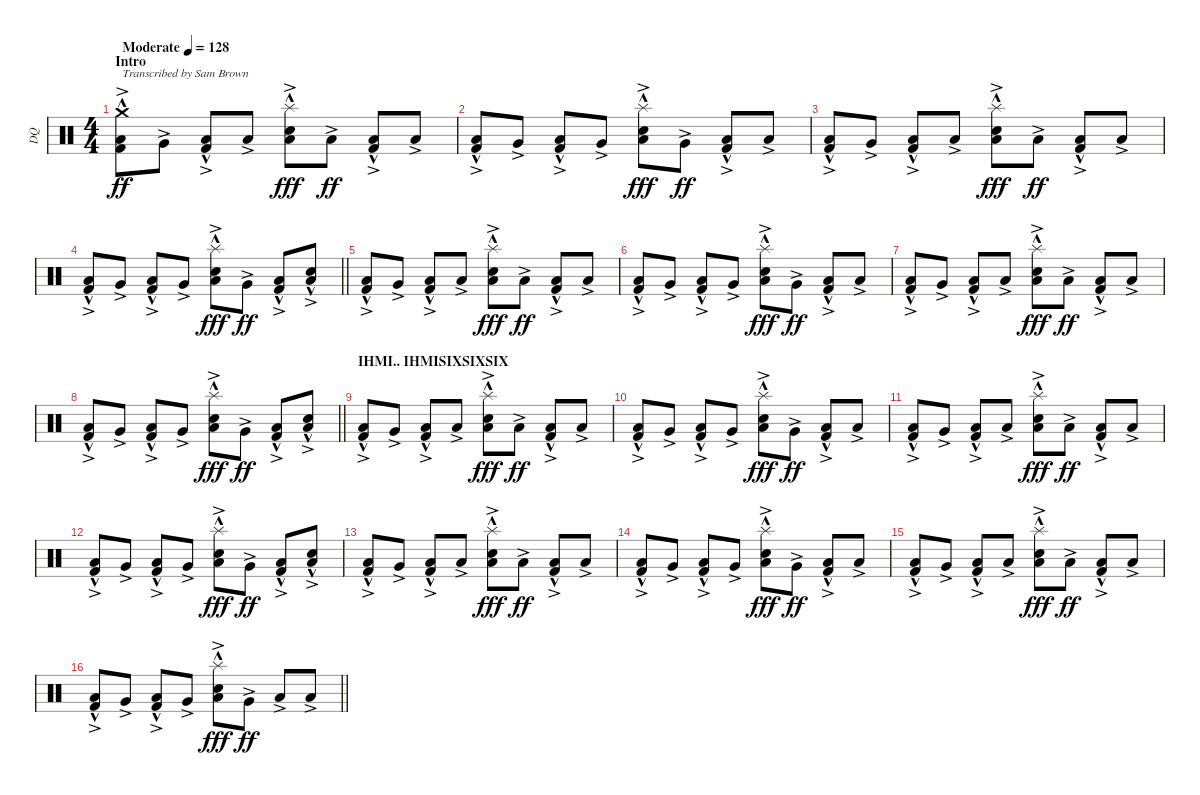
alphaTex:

\track ("DQ" "DQ") {instrument percussion}
\staff {score}
\articulation defaults
\ts (4 4)
\section ("" "Intro")
\tempo (128 "Moderate")
\clef neutral
\ks c
("Kick (hit) 2"{hac} "Low Tom (hit)"{ac} "Crash medium (hit)").8{txt "Transcribed by Sam Brown" dy ff} "Very Low Tom (hit)"{ac}.8 ("Kick (hit) 2"{hac} "Low Floor Tom (hit)"{ac}).8 "Low Floor Tom (hit)"{ac}.8 ("Snare (hit) 2"{hac} "Low Floor Tom (hit)"{ac} "Splash (hit)"{hac}).8{dy fff} "Low Tom (hit)"{ac}.8{dy ff} ("Kick (hit) 2"{hac} "Low Floor Tom (hit)"{ac}).8 "Low Floor Tom (hit)"{ac}.8 |
("Kick (hit) 2"{hac} "Low Floor Tom (hit)"{ac}).8 "Very Low Tom (hit)"{ac}.8 ("Kick (hit) 2"{hac} "Low Floor Tom (hit)"{ac}).8 "Very Low Tom (hit)"{ac}.8 ("Snare (hit) 2"{hac} "Low Tom (hit)"{ac} "Splash (hit)"{hac}).8{dy fff} "Very Low Tom (hit)"{ac}.8{dy ff} ("Kick (hit) 2"{hac} "Low Floor Tom (hit)"{ac}).8 "Low Floor Tom (hit)"{ac}.8 |
("Kick (hit) 2"{hac} "Low Tom (hit)"{ac}).8 "Very Low Tom (hit)"{ac}.8 ("Kick (hit) 2"{hac} "Low Floor Tom (hit)"{ac}).8 "Low Floor Tom (hit)"{ac}.8 ("Snare (hit) 2"{hac} "Low Floor Tom (hit)"{ac} "Splash (hit)"{hac}).8{dy fff} "Low Tom (hit)"{ac}.8{dy ff} ("Kick (hit) 2"{hac} "Low Floor Tom (hit)"{ac}).8 "Low Floor Tom (hit)"{ac}.8 |
\barLineRight lightlight
("Kick (hit) 2"{hac} "Low Floor Tom (hit)"{ac}).8 "Very Low Tom (hit)"{ac}.8 ("Kick (hit) 2"{hac} "Low Floor Tom (hit)"{ac}).8 "Very Low Tom (hit)"{ac}.8 ("Snare (hit) 2"{hac} "Low Tom (hit)"{ac} "Splash (hit)"{hac}).8{dy fff} "Very Low Tom (hit)"{ac}.8{dy ff} ("Kick (hit) 2"{hac} "Low Floor Tom (hit)"{ac}).8 ("Snare (hit) 2"{hac} "Low Floor Tom (hit)"{ac}).8 |
\section ("" "")
("Kick (hit) 2"{hac} "Low Tom (hit)"{ac}).8 "Very Low Tom (hit)"{ac}.8 ("Kick (hit) 2"{hac} "Low Floor Tom (hit)"{ac}).8 "Low Floor Tom (hit)"{ac}.8 ("Snare (hit) 2"{hac} "Low Floor Tom (hit)"{ac} "Splash (hit)"{hac}).8{dy fff} "Low Tom (hit)"{ac}.8{dy ff} ("Kick (hit) 2"{hac} "Low Floor Tom (hit)"{ac}).8 "Low Floor Tom (hit)"{ac}.8 |
("Kick (hit) 2"{hac} "Low Floor Tom (hit)"{ac}).8 "Very Low Tom (hit)"{ac}.8 ("Kick (hit) 2"{hac} "Low Floor Tom (hit)"{ac}).8 "Very Low Tom (hit)"{ac}.8 ("Snare (hit) 2"{hac} "Low Tom (hit)"{ac} "Splash (hit)"{hac}).8{dy fff} "Very Low Tom (hit)"{ac}.8{dy ff} ("Kick (hit) 2"{hac} "Low Floor Tom (hit)"{ac}).8 "Low Floor Tom (hit)"{ac}.8 |
("Kick (hit) 2"{hac} "Low Tom (hit)"{ac}).8 "Very Low Tom (hit)"{ac}.8 ("Kick (hit) 2"{hac} "Low Floor Tom (hit)"{ac}).8 "Low Floor Tom (hit)"{ac}.8 ("Snare (hit) 2"{hac} "Low Floor Tom (hit)"{ac} "Splash (hit)"{hac}).8{dy fff} "Low Tom (hit)"{ac}.8{dy ff} ("Kick (hit) 2"{hac} "Low Floor Tom (hit)"{ac}).8 "Low Floor Tom (hit)"{ac}.8 |
\barLineRight lightlight
("Kick (hit) 2"{hac} "Low Floor Tom (hit)"{ac}).8 "Very Low Tom (hit)"{ac}.8 ("Kick (hit) 2"{hac} "Low Floor Tom (hit)"{ac}).8 "Very Low Tom (hit)"{ac}.8 ("Snare (hit) 2"{hac} "Low Tom (hit)"{ac} "Splash (hit)"{hac}).8{dy fff} "Very Low Tom (hit)"{ac}.8{dy ff} ("Kick (hit) 2"{hac} "Low Floor Tom (hit)"{ac}).8 ("Snare (hit) 2"{hac} "Low Floor Tom (hit)"{ac}).8 |
\section ("" "IHMI.. IHMISIXSIXSIX")
("Kick (hit) 2"{hac} "Low Tom (hit)"{ac}).8 "Very Low Tom (hit)"{ac}.8 ("Kick (hit) 2"{hac} "Low Floor Tom (hit)"{ac}).8 "Low Floor Tom (hit)"{ac}.8 ("Snare (hit) 2"{hac} "Low Floor Tom (hit)"{ac} "Splash (hit)"{hac}).8{dy fff} "Low Tom (hit)"{ac}.8{dy ff} ("Kick (hit) 2"{hac} "Low Floor Tom (hit)"{ac}).8 "Low Floor Tom (hit)"{ac}.8 |
("Kick (hit) 2"{hac} "Low Floor Tom (hit)"{ac}).8 "Very Low Tom (hit)"{ac}.8 ("Kick (hit) 2"{hac} "Low Floor Tom (hit)"{ac}).8 "Very Low Tom (hit)"{ac}.8 ("Snare (hit) 2"{hac} "Low Tom (hit)"{ac} "Splash (hit)"{hac}).8{dy fff} "Very Low Tom (hit)"{ac}.8{dy ff} ("Kick (hit) 2"{hac} "Low Floor Tom (hit)"{ac}).8 "Low Floor Tom (hit)"{ac}.8 |
("Kick (hit) 2"{hac} "Low Tom (hit)"{ac}).8 "Very Low Tom (hit)"{ac}.8 ("Kick (hit) 2"{hac} "Low Floor Tom (hit)"{ac}).8 "Low Floor Tom (hit)"{ac}.8 ("Snare (hit) 2"{hac} "Low Floor Tom (hit)"{ac} "Splash (hit)"{hac}).8{dy fff} "Low Tom (hit)"{ac}.8{dy ff} ("Kick (hit) 2"{hac} "Low Floor Tom (hit)"{ac}).8 "Low Floor Tom (hit)"{ac}.8 |
("Kick (hit) 2"{hac} "Low Floor Tom (hit)"{ac}).8 "Very Low Tom (hit)"{ac}.8 ("Kick (hit) 2"{hac} "Low Floor Tom (hit)"{ac}).8 "Very Low Tom (hit)"{ac}.8 ("Snare (hit) 2"{hac} "Low Tom (hit)"{ac} "Splash (hit)"{hac}).8{dy fff} "Very Low Tom (hit)"{ac}.8{dy ff} ("Kick (hit) 2"{hac} "Low Floor Tom (hit)"{ac}).8 ("Snare (hit) 2"{hac} "Low Floor Tom (hit)"{ac}).8 |
("Kick (hit) 2"{hac} "Low Tom (hit)"{ac}).8 "Very Low Tom (hit)"{ac}.8 ("Kick (hit) 2"{hac} "Low Floor Tom (hit)"{ac}).8 "Low Floor Tom (hit)"{ac}.8 ("Snare (hit) 2"{hac} "Low Floor Tom (hit)"{ac} "Splash (hit)"{hac}).8{dy fff} "Low Tom (hit)"{ac}.8{dy ff} ("Kick (hit) 2"{hac} "Low Floor Tom (hit)"{ac}).8 "Low Floor Tom (hit)"{ac}.8 |
("Kick (hit) 2"{hac} "Low Floor Tom (hit)"{ac}).8 "Very Low Tom (hit)"{ac}.8 ("Kick (hit) 2"{hac} "Low Floor Tom (hit)"{ac}).8 "Very Low Tom (hit)"{ac}.8 ("Snare (hit) 2"{hac} "Low Tom (hit)"{ac} "Splash (hit)"{hac}).8{dy fff} "Very Low Tom (hit)"{ac}.8{dy ff} ("Kick (hit) 2"{hac} "Low Floor Tom (hit)"{ac}).8 "Low Floor Tom (hit)"{ac}.8 |
("Kick (hit) 2"{hac} "Low Tom (hit)"{ac}).8 "Very Low Tom (hit)"{ac}.8 ("Kick (hit) 2"{hac} "Low Floor Tom (hit)"{ac}).8 "Low Floor Tom (hit)"{ac}.8 ("Snare (hit) 2"{hac} "Low Floor Tom (hit)"{ac} "Splash (hit)"{hac}).8{dy fff} "Low Tom (hit)"{ac}.8{dy ff} ("Kick (hit) 2"{hac} "Low Floor Tom (hit)"{ac}).8 "Low Floor Tom (hit)"{ac}.8 |
\barLineRight lightlight
("Kick (hit) 2"{hac} "Low Floor Tom (hit)"{ac}).8 "Very Low Tom (hit)"{ac}.8 ("Kick (hit) 2"{hac} "Low Floor Tom (hit)"{ac}).8 "Very Low Tom (hit)"{ac}.8 ("Snare (hit) 2"{hac} "Low Tom (hit)"{ac} "Splash (hit)"{hac}).8{dy fff} "Very Low Tom (hit)"{ac}.8{dy ff} "Low Floor Tom (hit)"{ac}.8 "Low Floor Tom (hit)"{ac}.8
